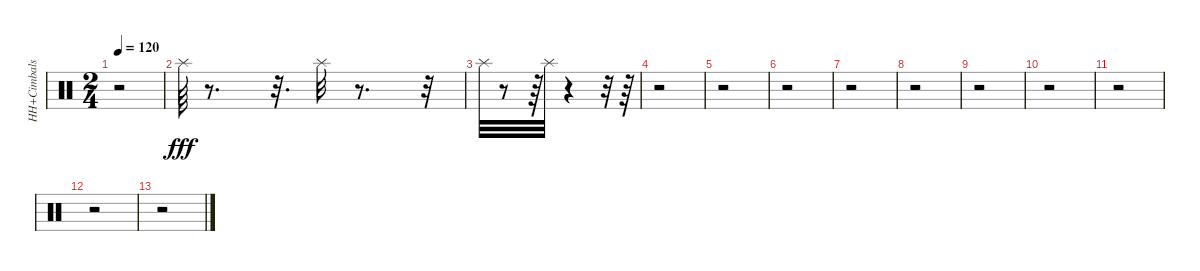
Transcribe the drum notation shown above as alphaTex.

\track ("HH+Cimbals" "HH+Cimbals") {instrument percussion}
\staff {score}
\articulation defaults
\ts (2 4)
\tempo 120
\clef neutral
\ks c
r.2{dy fff} |
"Splash (hit)".64 r.8{d} r.32{d} "Splash (hit)".32 r.8{d} r.32 |
"Splash (hit)".32 r.8 r.64 "Splash (hit)".32 r.4 r.32 r.64 |
r.2 |
r.2 |
r.2 |
r.2 |
r.2 |
r.2 |
r.2 |
r.2 |
r.2 |
r.2
